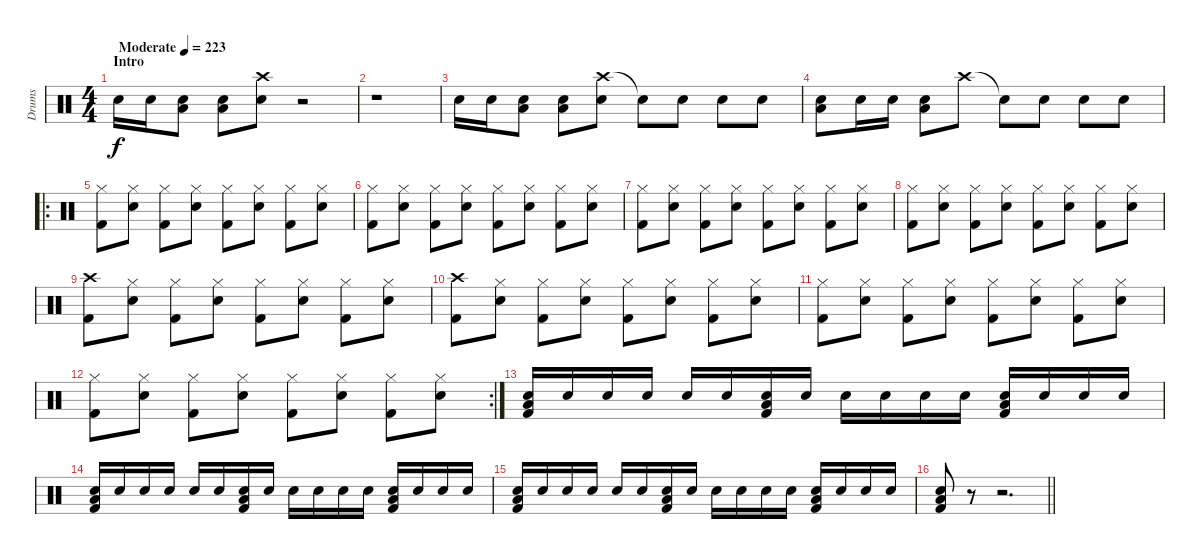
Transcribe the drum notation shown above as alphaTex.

\track ("Drums" "Drums") {instrument percussion}
\staff {score}
\articulation defaults
\ts (4 4)
\section ("" "Intro")
\tempo (223 "Moderate")
\clef neutral
\ks c "Snare (hit) 2".16{dy f} "Snare (hit) 2".16
("Low Tom (hit)" "Snare (hit) 2").8 ("Low Tom (hit)" "Snare (hit) 2").8 ("Crash high (hit)" "Snare (hit) 2").8 r.2 |
r.1 |
"Snare (hit) 2".16 "Snare (hit) 2".16 ("Low Tom (hit)" "Snare (hit) 2").8 ("Low Tom (hit)" "Snare (hit) 2").8 ("Crash high (hit)" "Snare (hit) 2").8 "Snare (hit)"{t}.8 "Snare (hit) 2".8 "Snare (hit) 2".8 "Snare (hit) 2".8 |
("Low Tom (hit)" "Snare (hit) 2").8 "Snare (hit) 2".16 "Snare (hit) 2".16 ("Low Tom (hit)" "Snare (hit) 2").8 "Crash high (hit)".8 "Snare (hit)"{t}.8 "Snare (hit) 2".8 "Snare (hit) 2".8 "Snare (hit) 2".8 |
\ro
("Hi-Hat (closed)" "Kick (hit) 2").8 ("Hi-Hat (closed)" "Snare (hit) 2").8 ("Hi-Hat (closed)" "Kick (hit) 2").8 ("Hi-Hat (closed)" "Snare (hit) 2").8 ("Hi-Hat (closed)" "Kick (hit) 2").8 ("Hi-Hat (closed)" "Snare (hit) 2").8 ("Hi-Hat (closed)" "Kick (hit) 2").8 ("Hi-Hat (closed)" "Snare (hit) 2").8 |
("Hi-Hat (closed)" "Kick (hit) 2").8 ("Hi-Hat (closed)" "Snare (hit) 2").8 ("Hi-Hat (closed)" "Kick (hit) 2").8 ("Hi-Hat (closed)" "Snare (hit) 2").8 ("Hi-Hat (closed)" "Kick (hit) 2").8 ("Hi-Hat (closed)" "Snare (hit) 2").8 ("Hi-Hat (closed)" "Kick (hit) 2").8 ("Hi-Hat (closed)" "Snare (hit) 2").8 |
("Hi-Hat (closed)" "Kick (hit) 2").8 ("Hi-Hat (closed)" "Snare (hit) 2").8 ("Hi-Hat (closed)" "Kick (hit) 2").8 ("Hi-Hat (closed)" "Snare (hit) 2").8 ("Hi-Hat (closed)" "Kick (hit) 2").8 ("Hi-Hat (closed)" "Snare (hit) 2").8 ("Hi-Hat (closed)" "Kick (hit) 2").8 ("Hi-Hat (closed)" "Snare (hit) 2").8 |
("Hi-Hat (closed)" "Kick (hit) 2").8 ("Hi-Hat (closed)" "Snare (hit) 2").8 ("Hi-Hat (closed)" "Kick (hit) 2").8 ("Hi-Hat (closed)" "Snare (hit) 2").8 ("Hi-Hat (closed)" "Kick (hit) 2").8 ("Hi-Hat (closed)" "Snare (hit) 2").8 ("Hi-Hat (closed)" "Kick (hit) 2").8 ("Hi-Hat (closed)" "Snare (hit) 2").8 |
("Crash high (hit)" "Kick (hit) 2").8 ("Hi-Hat (closed)" "Snare (hit) 2").8 ("Hi-Hat (closed)" "Kick (hit) 2").8 ("Hi-Hat (closed)" "Snare (hit) 2").8 ("Hi-Hat (closed)" "Kick (hit) 2").8 ("Hi-Hat (closed)" "Snare (hit) 2").8 ("Hi-Hat (closed)" "Kick (hit) 2").8 ("Hi-Hat (closed)" "Snare (hit) 2").8 |
("Crash high (hit)" "Kick (hit) 2").8 ("Hi-Hat (closed)" "Snare (hit) 2").8 ("Hi-Hat (closed)" "Kick (hit) 2").8 ("Hi-Hat (closed)" "Snare (hit) 2").8 ("Hi-Hat (closed)" "Kick (hit) 2").8 ("Hi-Hat (closed)" "Snare (hit) 2").8 ("Hi-Hat (closed)" "Kick (hit) 2").8 ("Hi-Hat (closed)" "Snare (hit) 2").8 |
("Hi-Hat (closed)" "Kick (hit) 2").8 ("Hi-Hat (closed)" "Snare (hit) 2").8 ("Hi-Hat (closed)" "Kick (hit) 2").8 ("Hi-Hat (closed)" "Snare (hit) 2").8 ("Hi-Hat (closed)" "Kick (hit) 2").8 ("Hi-Hat (closed)" "Snare (hit) 2").8 ("Hi-Hat (closed)" "Kick (hit) 2").8 ("Hi-Hat (closed)" "Snare (hit) 2").8 |
\rc 2
("Hi-Hat (closed)" "Kick (hit) 2").8 ("Hi-Hat (closed)" "Snare (hit) 2").8 ("Hi-Hat (closed)" "Kick (hit) 2").8 ("Hi-Hat (closed)" "Snare (hit) 2").8 ("Hi-Hat (closed)" "Kick (hit) 2").8 ("Hi-Hat (closed)" "Snare (hit) 2").8 ("Hi-Hat (closed)" "Kick (hit) 2").8 ("Hi-Hat (closed)" "Snare (hit) 2").8 |
("Low Tom (hit)" "Snare (hit) 2" "Kick (hit) 2").16 "Snare (hit) 2".16 "Snare (hit) 2".16 "Snare (hit) 2".16 "Snare (hit) 2".16 "Snare (hit) 2".16 ("Low Tom (hit)" "Snare (hit) 2" "Kick (hit) 2").16 "Snare (hit) 2".16 "Snare (hit) 2".16 "Snare (hit) 2".16 "Snare (hit) 2".16 "Snare (hit) 2".16 ("Low Tom (hit)" "Snare (hit) 2" "Kick (hit) 2").16 "Snare (hit) 2".16 "Snare (hit) 2".16 "Snare (hit) 2".16 |
("Low Tom (hit)" "Snare (hit) 2" "Kick (hit) 2").16 "Snare (hit) 2".16 "Snare (hit) 2".16 "Snare (hit) 2".16 "Snare (hit) 2".16 "Snare (hit) 2".16 ("Low Tom (hit)" "Snare (hit) 2" "Kick (hit) 2").16 "Snare (hit) 2".16 "Snare (hit) 2".16 "Snare (hit) 2".16 "Snare (hit) 2".16 "Snare (hit) 2".16 ("Low Tom (hit)" "Snare (hit) 2" "Kick (hit) 2").16 "Snare (hit) 2".16 "Snare (hit) 2".16 "Snare (hit) 2".16 |
("Low Tom (hit)" "Snare (hit) 2" "Kick (hit) 2").16 "Snare (hit) 2".16 "Snare (hit) 2".16 "Snare (hit) 2".16 "Snare (hit) 2".16 "Snare (hit) 2".16 ("Low Tom (hit)" "Snare (hit) 2" "Kick (hit) 2").16 "Snare (hit) 2".16 "Snare (hit) 2".16 "Snare (hit) 2".16 "Snare (hit) 2".16 "Snare (hit) 2".16 ("Low Tom (hit)" "Snare (hit) 2" "Kick (hit) 2").16 "Snare (hit) 2".16 "Snare (hit) 2".16 "Snare (hit) 2".16 |
\barLineRight lightlight
("Low Tom (hit)" "Snare (hit) 2" "Kick (hit) 2").8 r.8 r.2{d}
